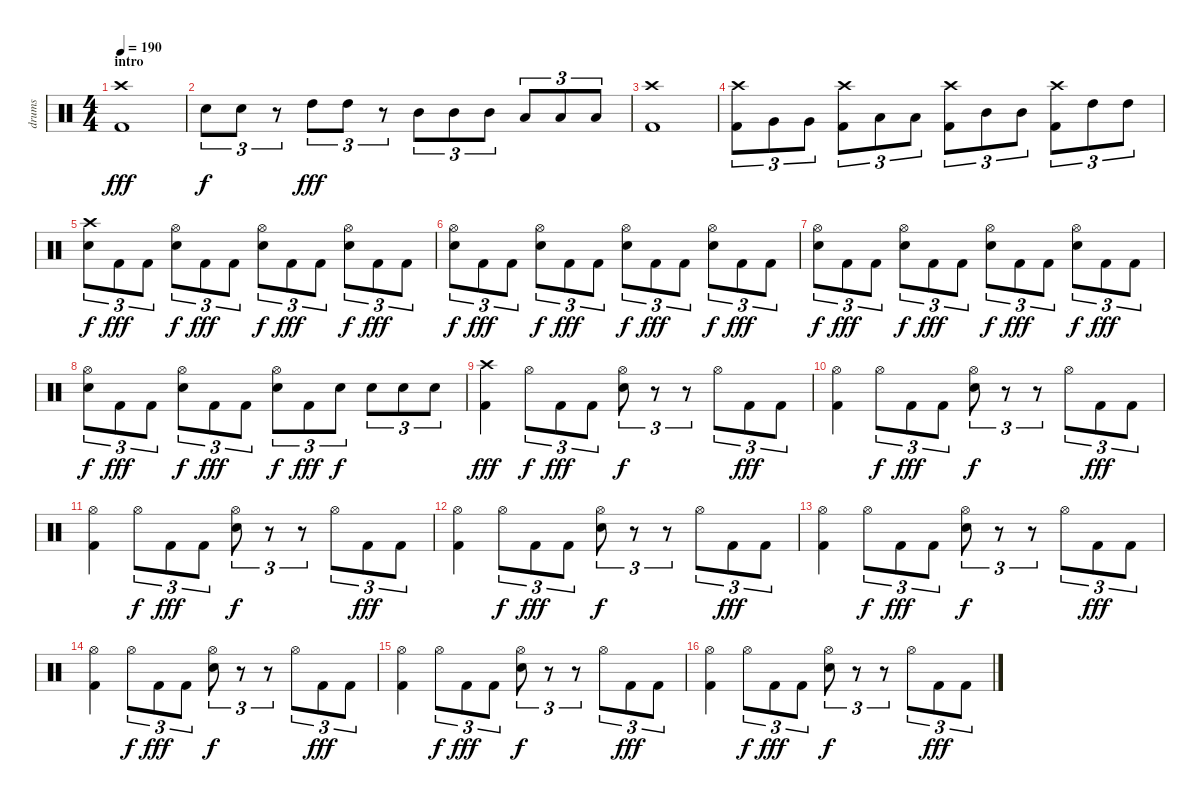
\track ("drums" "drums") {instrument percussion}
\staff {score}
\articulation defaults
\ts (4 4)
\section ("" "intro")
\tempo 190
\clef neutral
\ks c
("Crash high (hit)" "Kick (hit) 2").1{dy fff} |
"Snare (hit) 2".8{tu (3 2) dy f} "Snare (hit) 2".8{tu (3 2)} r.8{tu (3 2)} "High Tom (hit)".8{tu (3 2) dy fff} "High Tom (hit)".8{tu (3 2)} r.8{tu (3 2)} "Mid Tom (hit)".8{tu (3 2)} "Mid Tom (hit)".8{tu (3 2)} "Mid Tom (hit)".8{tu (3 2)} "Low Tom (hit)".8{tu (3 2)} "Low Tom (hit)".8{tu (3 2)} "Low Tom (hit)".8{tu (3 2)} |
("Crash high (hit)" "Kick (hit) 2").1 |
("Crash high (hit)" "Kick (hit) 2").8{tu (3 2)} "Very Low Tom (hit)".8{tu (3 2)} "Very Low Tom (hit)".8{tu (3 2)} ("Crash high (hit)" "Kick (hit) 2").8{tu (3 2)} "Low Tom (hit)".8{tu (3 2)} "Low Tom (hit)".8{tu (3 2)} ("Crash high (hit)" "Kick (hit) 2").8{tu (3 2)} "Mid Tom (hit)".8{tu (3 2)} "Mid Tom (hit)".8{tu (3 2)} ("Crash high (hit)" "Kick (hit) 2").8{tu (3 2)} "High Tom (hit)".8{tu (3 2)} "High Tom (hit)".8{tu (3 2)} |
("Crash high (hit)" "Snare (hit) 2").8{tu (3 2) dy f} "Kick (hit) 2".8{tu (3 2) dy fff} "Kick (hit) 2".8{tu (3 2)} ("Hi-Hat (open)" "Snare (hit) 2").8{tu (3 2) dy f} "Kick (hit) 2".8{tu (3 2) dy fff} "Kick (hit) 2".8{tu (3 2)} ("Hi-Hat (open)" "Snare (hit) 2").8{tu (3 2) dy f} "Kick (hit) 2".8{tu (3 2) dy fff} "Kick (hit) 2".8{tu (3 2)} ("Hi-Hat (open)" "Snare (hit) 2").8{tu (3 2) dy f} "Kick (hit) 2".8{tu (3 2) dy fff} "Kick (hit) 2".8{tu (3 2)} |
("Hi-Hat (open)" "Snare (hit) 2").8{tu (3 2) dy f} "Kick (hit) 2".8{tu (3 2) dy fff} "Kick (hit) 2".8{tu (3 2)} ("Hi-Hat (open)" "Snare (hit) 2").8{tu (3 2) dy f} "Kick (hit) 2".8{tu (3 2) dy fff} "Kick (hit) 2".8{tu (3 2)} ("Hi-Hat (open)" "Snare (hit) 2").8{tu (3 2) dy f} "Kick (hit) 2".8{tu (3 2) dy fff} "Kick (hit) 2".8{tu (3 2)} ("Hi-Hat (open)" "Snare (hit) 2").8{tu (3 2) dy f} "Kick (hit) 2".8{tu (3 2) dy fff} "Kick (hit) 2".8{tu (3 2)} |
("Hi-Hat (open)" "Snare (hit) 2").8{tu (3 2) dy f} "Kick (hit) 2".8{tu (3 2) dy fff} "Kick (hit) 2".8{tu (3 2)} ("Hi-Hat (open)" "Snare (hit) 2").8{tu (3 2) dy f} "Kick (hit) 2".8{tu (3 2) dy fff} "Kick (hit) 2".8{tu (3 2)} ("Hi-Hat (open)" "Snare (hit) 2").8{tu (3 2) dy f} "Kick (hit) 2".8{tu (3 2) dy fff} "Kick (hit) 2".8{tu (3 2)} ("Hi-Hat (open)" "Snare (hit) 2").8{tu (3 2) dy f} "Kick (hit) 2".8{tu (3 2) dy fff} "Kick (hit) 2".8{tu (3 2)} |
("Hi-Hat (open)" "Snare (hit) 2").8{tu (3 2) dy f} "Kick (hit) 2".8{tu (3 2) dy fff} "Kick (hit) 2".8{tu (3 2)} ("Hi-Hat (open)" "Snare (hit) 2").8{tu (3 2) dy f} "Kick (hit) 2".8{tu (3 2) dy fff} "Kick (hit) 2".8{tu (3 2)} ("Hi-Hat (open)" "Snare (hit) 2").8{tu (3 2) dy f} "Kick (hit) 2".8{tu (3 2) dy fff} "Snare (hit) 2".8{tu (3 2) dy f} "Snare (hit) 2".8{tu (3 2)} "Snare (hit) 2".8{tu (3 2)} "Snare (hit) 2".8{tu (3 2)} |
("Crash high (hit)" "Kick (hit) 2").4{dy fff} "Hi-Hat (open)".8{tu (3 2) dy f} "Kick (hit) 2".8{tu (3 2) dy fff} "Kick (hit) 2".8{tu (3 2)} ("Hi-Hat (open)" "Snare (hit) 2").8{tu (3 2) dy f} r.8{tu (3 2)} r.8{tu (3 2)} "Hi-Hat (open)".8{tu (3 2)} "Kick (hit) 2".8{tu (3 2) dy fff} "Kick (hit) 2".8{tu (3 2)} |
("Hi-Hat (open)" "Kick (hit) 2").4 "Hi-Hat (open)".8{tu (3 2) dy f} "Kick (hit) 2".8{tu (3 2) dy fff} "Kick (hit) 2".8{tu (3 2)} ("Hi-Hat (open)" "Snare (hit) 2").8{tu (3 2) dy f} r.8{tu (3 2)} r.8{tu (3 2)} "Hi-Hat (open)".8{tu (3 2)} "Kick (hit) 2".8{tu (3 2) dy fff} "Kick (hit) 2".8{tu (3 2)} |
("Hi-Hat (open)" "Kick (hit) 2").4 "Hi-Hat (open)".8{tu (3 2) dy f} "Kick (hit) 2".8{tu (3 2) dy fff} "Kick (hit) 2".8{tu (3 2)} ("Hi-Hat (open)" "Snare (hit) 2").8{tu (3 2) dy f} r.8{tu (3 2)} r.8{tu (3 2)} "Hi-Hat (open)".8{tu (3 2)} "Kick (hit) 2".8{tu (3 2) dy fff} "Kick (hit) 2".8{tu (3 2)} |
("Hi-Hat (open)" "Kick (hit) 2").4 "Hi-Hat (open)".8{tu (3 2) dy f} "Kick (hit) 2".8{tu (3 2) dy fff} "Kick (hit) 2".8{tu (3 2)} ("Hi-Hat (open)" "Snare (hit) 2").8{tu (3 2) dy f} r.8{tu (3 2)} r.8{tu (3 2)} "Hi-Hat (open)".8{tu (3 2)} "Kick (hit) 2".8{tu (3 2) dy fff} "Kick (hit) 2".8{tu (3 2)} |
("Hi-Hat (open)" "Kick (hit) 2").4 "Hi-Hat (open)".8{tu (3 2) dy f} "Kick (hit) 2".8{tu (3 2) dy fff} "Kick (hit) 2".8{tu (3 2)} ("Hi-Hat (open)" "Snare (hit) 2").8{tu (3 2) dy f} r.8{tu (3 2)} r.8{tu (3 2)} "Hi-Hat (open)".8{tu (3 2)} "Kick (hit) 2".8{tu (3 2) dy fff} "Kick (hit) 2".8{tu (3 2)} |
("Hi-Hat (open)" "Kick (hit) 2").4 "Hi-Hat (open)".8{tu (3 2) dy f} "Kick (hit) 2".8{tu (3 2) dy fff} "Kick (hit) 2".8{tu (3 2)} ("Hi-Hat (open)" "Snare (hit) 2").8{tu (3 2) dy f} r.8{tu (3 2)} r.8{tu (3 2)} "Hi-Hat (open)".8{tu (3 2)} "Kick (hit) 2".8{tu (3 2) dy fff} "Kick (hit) 2".8{tu (3 2)} |
("Hi-Hat (open)" "Kick (hit) 2").4 "Hi-Hat (open)".8{tu (3 2) dy f} "Kick (hit) 2".8{tu (3 2) dy fff} "Kick (hit) 2".8{tu (3 2)} ("Hi-Hat (open)" "Snare (hit) 2").8{tu (3 2) dy f} r.8{tu (3 2)} r.8{tu (3 2)} "Hi-Hat (open)".8{tu (3 2)} "Kick (hit) 2".8{tu (3 2) dy fff} "Kick (hit) 2".8{tu (3 2)} |
("Hi-Hat (open)" "Kick (hit) 2").4 "Hi-Hat (open)".8{tu (3 2) dy f} "Kick (hit) 2".8{tu (3 2) dy fff} "Kick (hit) 2".8{tu (3 2)} ("Hi-Hat (open)" "Snare (hit) 2").8{tu (3 2) dy f} r.8{tu (3 2)} r.8{tu (3 2)} "Hi-Hat (open)".8{tu (3 2)} "Kick (hit) 2".8{tu (3 2) dy fff} "Kick (hit) 2".8{tu (3 2)}
